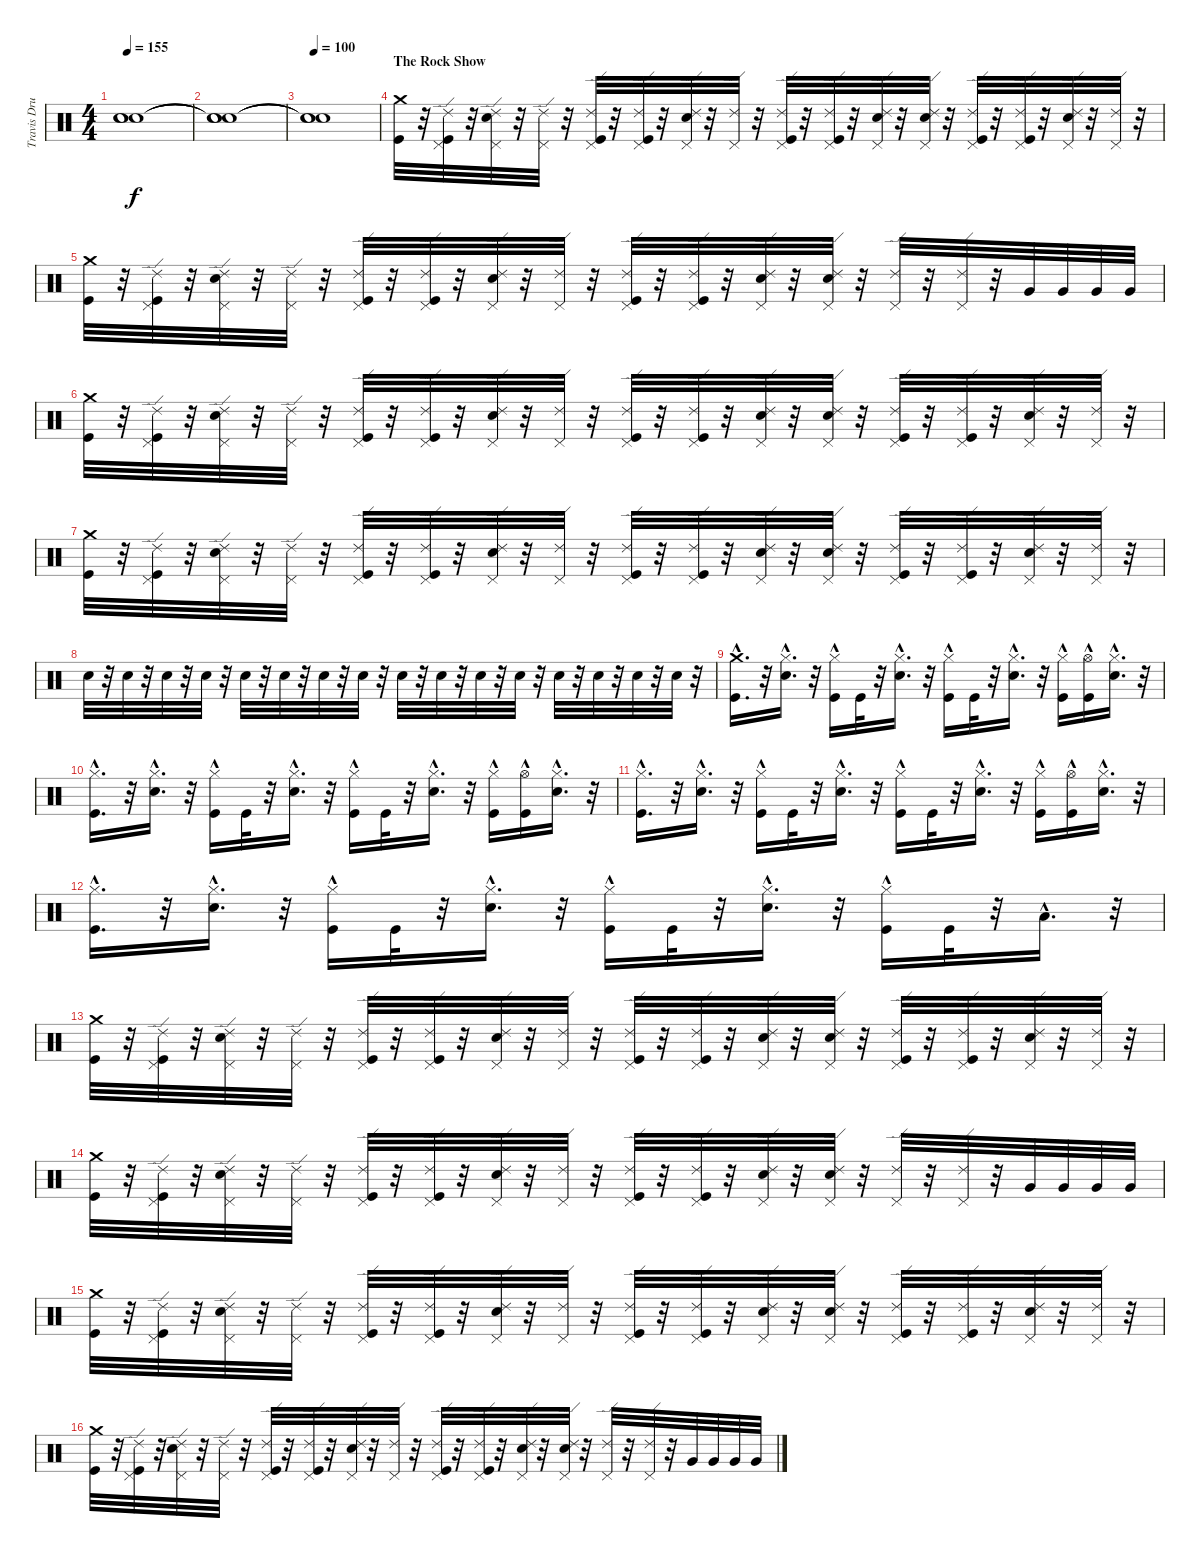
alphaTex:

\track ("Travis Drums" "Travis Dru") {instrument percussion}
\staff {score}
\articulation defaults
\ts (4 4)
\tempo 155
\clef neutral
\ks c
("Snare (hit)"{t} "Snare (hit)"{t} "Snare (hit)"{t}).1{dy f} |
("Snare (hit)"{t} "Snare (hit)"{t} "Snare (hit)"{t}).1 |
\tempo 100
("Snare (hit)"{t} "Snare (hit)"{t} "Snare (hit)"{t}).1 |
\section ("" "The Rock Show")
("Crash medium (hit)" "Kick (hit)").32 r.32 ("Pedal Hi-Hat (hit)" "Ride (edge) 2" "Kick (hit)").32 r.32 ("Pedal Hi-Hat (hit)" "Ride (edge) 2" "Snare (hit) 2").32 r.32 ("Pedal Hi-Hat (hit)" "Ride (edge) 2").32 r.32 ("Kick (hit)" "Pedal Hi-Hat (hit)" "Ride (edge) 2").32 r.32 ("Kick (hit)" "Pedal Hi-Hat (hit)" "Ride (edge) 2").32 r.32 ("Snare (hit) 2" "Pedal Hi-Hat (hit)" "Ride (edge) 2").32 r.32 ("Pedal Hi-Hat (hit)" "Ride (edge) 2").32 r.32 ("Kick (hit)" "Pedal Hi-Hat (hit)" "Ride (edge) 2").32 r.32 ("Kick (hit)" "Pedal Hi-Hat (hit)" "Ride (edge) 2").32 r.32 ("Snare (hit) 2" "Pedal Hi-Hat (hit)" "Ride (edge) 2").32 r.32 ("Snare (hit) 2" "Pedal Hi-Hat (hit)" "Ride (edge) 2").32 r.32 ("Kick (hit)" "Pedal Hi-Hat (hit)" "Ride (edge) 2").32 r.32 ("Kick (hit)" "Pedal Hi-Hat (hit)" "Ride (edge) 2").32 r.32 ("Snare (hit) 2" "Pedal Hi-Hat (hit)" "Ride (edge) 2").32 r.32 ("Pedal Hi-Hat (hit)" "Ride (edge) 2").32 r.32 |
("Crash medium (hit)" "Kick (hit)").32 r.32 ("Pedal Hi-Hat (hit)" "Ride (edge) 2" "Kick (hit)").32 r.32 ("Pedal Hi-Hat (hit)" "Ride (edge) 2" "Snare (hit) 2").32 r.32 ("Pedal Hi-Hat (hit)" "Ride (edge) 2").32 r.32 ("Kick (hit)" "Pedal Hi-Hat (hit)" "Ride (edge) 2").32 r.32 ("Kick (hit)" "Pedal Hi-Hat (hit)" "Ride (edge) 2").32 r.32 ("Snare (hit) 2" "Pedal Hi-Hat (hit)" "Ride (edge) 2").32 r.32 ("Pedal Hi-Hat (hit)" "Ride (edge) 2").32 r.32 ("Kick (hit)" "Pedal Hi-Hat (hit)" "Ride (edge) 2").32 r.32 ("Kick (hit)" "Pedal Hi-Hat (hit)" "Ride (edge) 2").32 r.32 ("Snare (hit) 2" "Pedal Hi-Hat (hit)" "Ride (edge) 2").32 r.32 ("Snare (hit) 2" "Pedal Hi-Hat (hit)" "Ride (edge) 2").32 r.32 ("Pedal Hi-Hat (hit)" "Ride (edge) 2").32 r.32 ("Pedal Hi-Hat (hit)" "Ride (edge) 2").32 r.32 "Very Low Tom (hit)".32 "Very Low Tom (hit)".32 "Very Low Tom (hit)".32 "Very Low Tom (hit)".32 |
("Crash medium (hit)" "Kick (hit)").32 r.32 ("Pedal Hi-Hat (hit)" "Ride (edge) 2" "Kick (hit)").32 r.32 ("Pedal Hi-Hat (hit)" "Ride (edge) 2" "Snare (hit) 2").32 r.32 ("Pedal Hi-Hat (hit)" "Ride (edge) 2").32 r.32 ("Kick (hit)" "Pedal Hi-Hat (hit)" "Ride (edge) 2").32 r.32 ("Kick (hit)" "Pedal Hi-Hat (hit)" "Ride (edge) 2").32 r.32 ("Snare (hit) 2" "Pedal Hi-Hat (hit)" "Ride (edge) 2").32 r.32 ("Pedal Hi-Hat (hit)" "Ride (edge) 2").32 r.32 ("Kick (hit)" "Pedal Hi-Hat (hit)" "Ride (edge) 2").32 r.32 ("Kick (hit)" "Pedal Hi-Hat (hit)" "Ride (edge) 2").32 r.32 ("Snare (hit) 2" "Pedal Hi-Hat (hit)" "Ride (edge) 2").32 r.32 ("Snare (hit) 2" "Pedal Hi-Hat (hit)" "Ride (edge) 2").32 r.32 ("Kick (hit)" "Pedal Hi-Hat (hit)" "Ride (edge) 2").32 r.32 ("Kick (hit)" "Pedal Hi-Hat (hit)" "Ride (edge) 2").32 r.32 ("Snare (hit) 2" "Pedal Hi-Hat (hit)" "Ride (edge) 2").32 r.32 ("Pedal Hi-Hat (hit)" "Ride (edge) 2").32 r.32 |
("Crash medium (hit)" "Kick (hit)").32 r.32 ("Pedal Hi-Hat (hit)" "Ride (edge) 2" "Kick (hit)").32 r.32 ("Pedal Hi-Hat (hit)" "Ride (edge) 2" "Snare (hit) 2").32 r.32 ("Pedal Hi-Hat (hit)" "Ride (edge) 2").32 r.32 ("Kick (hit)" "Pedal Hi-Hat (hit)" "Ride (edge) 2").32 r.32 ("Kick (hit)" "Pedal Hi-Hat (hit)" "Ride (edge) 2").32 r.32 ("Snare (hit) 2" "Pedal Hi-Hat (hit)" "Ride (edge) 2").32 r.32 ("Pedal Hi-Hat (hit)" "Ride (edge) 2").32 r.32 ("Kick (hit)" "Pedal Hi-Hat (hit)" "Ride (edge) 2").32 r.32 ("Kick (hit)" "Pedal Hi-Hat (hit)" "Ride (edge) 2").32 r.32 ("Snare (hit) 2" "Pedal Hi-Hat (hit)" "Ride (edge) 2").32 r.32 ("Snare (hit) 2" "Pedal Hi-Hat (hit)" "Ride (edge) 2").32 r.32 ("Kick (hit)" "Pedal Hi-Hat (hit)" "Ride (edge) 2").32 r.32 ("Kick (hit)" "Pedal Hi-Hat (hit)" "Ride (edge) 2").32 r.32 ("Snare (hit) 2" "Pedal Hi-Hat (hit)" "Ride (edge) 2").32 r.32 ("Pedal Hi-Hat (hit)" "Ride (edge) 2").32 r.32 |
"Snare (hit) 2".32 r.32 "Snare (hit) 2".32 r.32 "Snare (hit) 2".32 r.32 "Snare (hit) 2".32 r.32 "Snare (hit) 2".32 r.32 "Snare (hit) 2".32 r.32 "Snare (hit) 2".32 r.32 "Snare (hit) 2".32 r.32 "Snare (hit) 2".32 r.32 "Snare (hit) 2".32 r.32 "Snare (hit) 2".32 r.32 "Snare (hit) 2".32 r.32 "Snare (hit) 2".32 r.32 "Snare (hit) 2".32 r.32 "Snare (hit) 2".32 r.32 "Snare (hit) 2".32 r.32 |
("Kick (hit)"{hac} "Crash medium (hit)"{hac}).16{d} r.32 ("Hi-Hat (closed)"{hac} "Snare (hit) 2"{hac}).16{d} r.32 ("Kick (hit)" "Hi-Hat (closed)"{hac}).16 "Kick (hit)".32 r.32 ("Snare (hit) 2"{hac} "Hi-Hat (closed)"{hac}).16{d} r.32 ("Kick (hit)" "Hi-Hat (closed)"{hac}).16 "Kick (hit)".32 r.32 ("Snare (hit) 2"{hac} "Hi-Hat (closed)"{hac}).16{d} r.32 ("Kick (hit)" "Hi-Hat (closed)"{hac}).16 ("Hi-Hat (open)"{hac} "Kick (hit)").16 ("Hi-Hat (closed)"{hac} "Snare (hit) 2"{hac}).16{d} r.32 |
("Kick (hit)"{hac} "Hi-Hat (closed)"{hac}).16{d} r.32 ("Hi-Hat (closed)"{hac} "Snare (hit) 2"{hac}).16{d} r.32 ("Kick (hit)" "Hi-Hat (closed)"{hac}).16 "Kick (hit)".32 r.32 ("Snare (hit) 2"{hac} "Hi-Hat (closed)"{hac}).16{d} r.32 ("Kick (hit)" "Hi-Hat (closed)"{hac}).16 "Kick (hit)".32 r.32 ("Snare (hit) 2"{hac} "Hi-Hat (closed)"{hac}).16{d} r.32 ("Kick (hit)" "Hi-Hat (closed)"{hac}).16 ("Hi-Hat (open)"{hac} "Kick (hit)").16 ("Hi-Hat (closed)"{hac} "Snare (hit) 2"{hac}).16{d} r.32 |
("Hi-Hat (closed)"{hac} "Kick (hit)"{hac}).16{d} r.32 ("Hi-Hat (closed)"{hac} "Snare (hit) 2"{hac}).16{d} r.32 ("Kick (hit)" "Hi-Hat (closed)"{hac}).16 "Kick (hit)".32 r.32 ("Snare (hit) 2"{hac} "Hi-Hat (closed)"{hac}).16{d} r.32 ("Kick (hit)" "Hi-Hat (closed)"{hac}).16 "Kick (hit)".32 r.32 ("Snare (hit) 2"{hac} "Hi-Hat (closed)"{hac}).16{d} r.32 ("Kick (hit)" "Hi-Hat (closed)"{hac}).16 ("Hi-Hat (open)"{hac} "Kick (hit)").16 ("Hi-Hat (closed)"{hac} "Snare (hit) 2"{hac}).16{d} r.32 |
("Kick (hit)"{hac} "Hi-Hat (closed)"{hac}).16{d} r.32 ("Hi-Hat (closed)"{hac} "Snare (hit) 2"{hac}).16{d} r.32 ("Kick (hit)" "Hi-Hat (closed)"{hac}).16 "Kick (hit)".32 r.32 ("Snare (hit) 2"{hac} "Hi-Hat (closed)"{hac}).16{d} r.32 ("Kick (hit)" "Hi-Hat (closed)"{hac}).16 "Kick (hit)".32 r.32 ("Snare (hit) 2"{hac} "Hi-Hat (closed)"{hac}).16{d} r.32 ("Kick (hit)" "Hi-Hat (closed)"{hac}).16 "Kick (hit)".32 r.32 "Low Tom (hit)"{hac}.16{d} r.32 |
("Crash medium (hit)" "Kick (hit)").32 r.32 ("Pedal Hi-Hat (hit)" "Ride (edge) 2" "Kick (hit)").32 r.32 ("Pedal Hi-Hat (hit)" "Ride (edge) 2" "Snare (hit) 2").32 r.32 ("Pedal Hi-Hat (hit)" "Ride (edge) 2").32 r.32 ("Kick (hit)" "Pedal Hi-Hat (hit)" "Ride (edge) 2").32 r.32 ("Kick (hit)" "Pedal Hi-Hat (hit)" "Ride (edge) 2").32 r.32 ("Snare (hit) 2" "Pedal Hi-Hat (hit)" "Ride (edge) 2").32 r.32 ("Pedal Hi-Hat (hit)" "Ride (edge) 2").32 r.32 ("Kick (hit)" "Pedal Hi-Hat (hit)" "Ride (edge) 2").32 r.32 ("Kick (hit)" "Pedal Hi-Hat (hit)" "Ride (edge) 2").32 r.32 ("Snare (hit) 2" "Pedal Hi-Hat (hit)" "Ride (edge) 2").32 r.32 ("Snare (hit) 2" "Pedal Hi-Hat (hit)" "Ride (edge) 2").32 r.32 ("Kick (hit)" "Pedal Hi-Hat (hit)" "Ride (edge) 2").32 r.32 ("Kick (hit)" "Pedal Hi-Hat (hit)" "Ride (edge) 2").32 r.32 ("Snare (hit) 2" "Pedal Hi-Hat (hit)" "Ride (edge) 2").32 r.32 ("Pedal Hi-Hat (hit)" "Ride (edge) 2").32 r.32 |
("Crash medium (hit)" "Kick (hit)").32 r.32 ("Pedal Hi-Hat (hit)" "Ride (edge) 2" "Kick (hit)").32 r.32 ("Pedal Hi-Hat (hit)" "Ride (edge) 2" "Snare (hit) 2").32 r.32 ("Pedal Hi-Hat (hit)" "Ride (edge) 2").32 r.32 ("Kick (hit)" "Pedal Hi-Hat (hit)" "Ride (edge) 2").32 r.32 ("Kick (hit)" "Pedal Hi-Hat (hit)" "Ride (edge) 2").32 r.32 ("Snare (hit) 2" "Pedal Hi-Hat (hit)" "Ride (edge) 2").32 r.32 ("Pedal Hi-Hat (hit)" "Ride (edge) 2").32 r.32 ("Kick (hit)" "Pedal Hi-Hat (hit)" "Ride (edge) 2").32 r.32 ("Kick (hit)" "Pedal Hi-Hat (hit)" "Ride (edge) 2").32 r.32 ("Snare (hit) 2" "Pedal Hi-Hat (hit)" "Ride (edge) 2").32 r.32 ("Snare (hit) 2" "Pedal Hi-Hat (hit)" "Ride (edge) 2").32 r.32 ("Pedal Hi-Hat (hit)" "Ride (edge) 2").32 r.32 ("Pedal Hi-Hat (hit)" "Ride (edge) 2").32 r.32 "Very Low Tom (hit)".32 "Very Low Tom (hit)".32 "Very Low Tom (hit)".32 "Very Low Tom (hit)".32 |
("Crash medium (hit)" "Kick (hit)").32 r.32 ("Pedal Hi-Hat (hit)" "Ride (edge) 2" "Kick (hit)").32 r.32 ("Pedal Hi-Hat (hit)" "Ride (edge) 2" "Snare (hit) 2").32 r.32 ("Pedal Hi-Hat (hit)" "Ride (edge) 2").32 r.32 ("Kick (hit)" "Pedal Hi-Hat (hit)" "Ride (edge) 2").32 r.32 ("Kick (hit)" "Pedal Hi-Hat (hit)" "Ride (edge) 2").32 r.32 ("Snare (hit) 2" "Pedal Hi-Hat (hit)" "Ride (edge) 2").32 r.32 ("Pedal Hi-Hat (hit)" "Ride (edge) 2").32 r.32 ("Kick (hit)" "Pedal Hi-Hat (hit)" "Ride (edge) 2").32 r.32 ("Kick (hit)" "Pedal Hi-Hat (hit)" "Ride (edge) 2").32 r.32 ("Snare (hit) 2" "Pedal Hi-Hat (hit)" "Ride (edge) 2").32 r.32 ("Snare (hit) 2" "Pedal Hi-Hat (hit)" "Ride (edge) 2").32 r.32 ("Kick (hit)" "Pedal Hi-Hat (hit)" "Ride (edge) 2").32 r.32 ("Kick (hit)" "Pedal Hi-Hat (hit)" "Ride (edge) 2").32 r.32 ("Snare (hit) 2" "Pedal Hi-Hat (hit)" "Ride (edge) 2").32 r.32 ("Pedal Hi-Hat (hit)" "Ride (edge) 2").32 r.32 |
("Crash medium (hit)" "Kick (hit)").32 r.32 ("Pedal Hi-Hat (hit)" "Ride (edge) 2" "Kick (hit)").32 r.32 ("Pedal Hi-Hat (hit)" "Ride (edge) 2" "Snare (hit) 2").32 r.32 ("Pedal Hi-Hat (hit)" "Ride (edge) 2").32 r.32 ("Kick (hit)" "Pedal Hi-Hat (hit)" "Ride (edge) 2").32 r.32 ("Kick (hit)" "Pedal Hi-Hat (hit)" "Ride (edge) 2").32 r.32 ("Snare (hit) 2" "Pedal Hi-Hat (hit)" "Ride (edge) 2").32 r.32 ("Pedal Hi-Hat (hit)" "Ride (edge) 2").32 r.32 ("Kick (hit)" "Pedal Hi-Hat (hit)" "Ride (edge) 2").32 r.32 ("Kick (hit)" "Pedal Hi-Hat (hit)" "Ride (edge) 2").32 r.32 ("Snare (hit) 2" "Pedal Hi-Hat (hit)" "Ride (edge) 2").32 r.32 ("Snare (hit) 2" "Pedal Hi-Hat (hit)" "Ride (edge) 2").32 r.32 ("Pedal Hi-Hat (hit)" "Ride (edge) 2").32 r.32 ("Pedal Hi-Hat (hit)" "Ride (edge) 2").32 r.32 "Very Low Tom (hit)".32 "Very Low Tom (hit)".32 "Very Low Tom (hit)".32 "Very Low Tom (hit)".32
